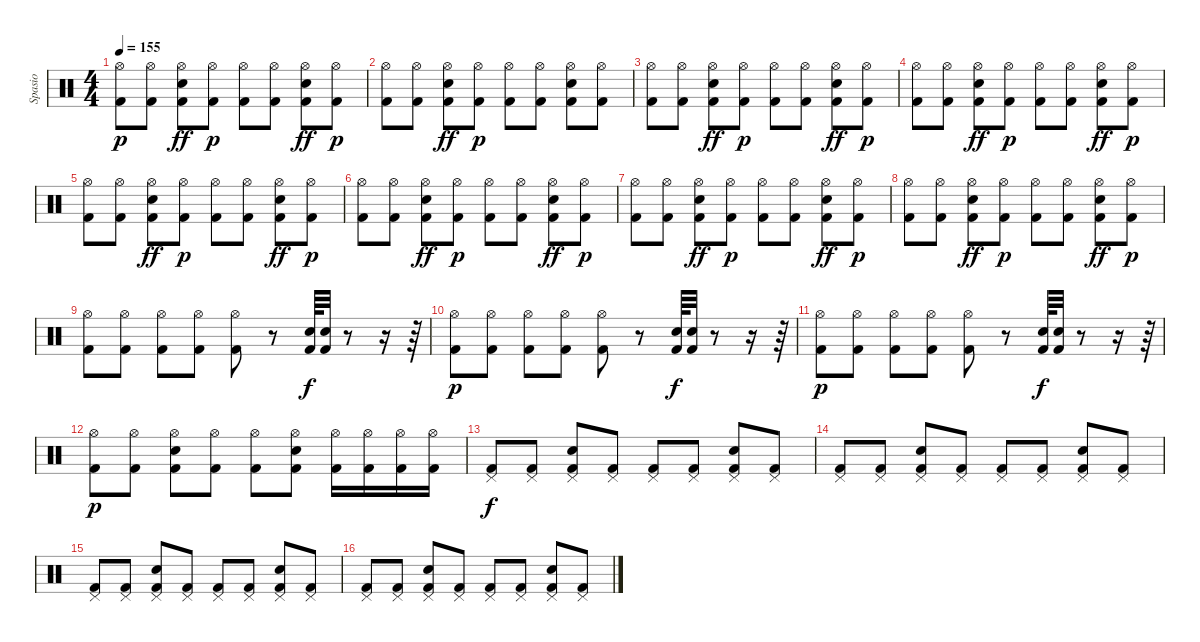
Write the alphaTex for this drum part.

\track ("Spasio" "Spasio") {instrument percussion}
\staff {score}
\articulation defaults
\ts (4 4)
\tempo 155
\clef neutral
\ks c
("Hi-Hat (open)" "Kick (hit) 2").8{dy p} ("Hi-Hat (open)" "Kick (hit) 2").8 ("Hi-Hat (open)" "Electric Snare (hit)" "Kick (hit) 2").8{dy ff} ("Hi-Hat (open)" "Kick (hit) 2").8{dy p} ("Hi-Hat (open)" "Kick (hit) 2").8 ("Hi-Hat (open)" "Kick (hit) 2").8 ("Hi-Hat (open)" "Electric Snare (hit)" "Kick (hit) 2").8{dy ff} ("Hi-Hat (open)" "Kick (hit) 2").8{dy p} |
("Hi-Hat (open)" "Kick (hit) 2").8 ("Hi-Hat (open)" "Kick (hit) 2").8 ("Hi-Hat (open)" "Electric Snare (hit)" "Kick (hit) 2").8{dy ff} ("Hi-Hat (open)" "Kick (hit) 2").8{dy p} ("Hi-Hat (open)" "Kick (hit) 2").8 ("Hi-Hat (open)" "Kick (hit) 2").8 ("Hi-Hat (open)" "Electric Snare (hit)" "Kick (hit) 2").8 ("Hi-Hat (open)" "Kick (hit) 2").8 |
("Hi-Hat (open)" "Kick (hit) 2").8 ("Hi-Hat (open)" "Kick (hit) 2").8 ("Hi-Hat (open)" "Electric Snare (hit)" "Kick (hit) 2").8{dy ff} ("Hi-Hat (open)" "Kick (hit) 2").8{dy p} ("Hi-Hat (open)" "Kick (hit) 2").8 ("Hi-Hat (open)" "Kick (hit) 2").8 ("Hi-Hat (open)" "Electric Snare (hit)" "Kick (hit) 2").8{dy ff} ("Hi-Hat (open)" "Kick (hit) 2").8{dy p} |
("Hi-Hat (open)" "Kick (hit) 2").8 ("Hi-Hat (open)" "Kick (hit) 2").8 ("Hi-Hat (open)" "Electric Snare (hit)" "Kick (hit) 2").8{dy ff} ("Hi-Hat (open)" "Kick (hit) 2").8{dy p} ("Hi-Hat (open)" "Kick (hit) 2").8 ("Hi-Hat (open)" "Kick (hit) 2").8 ("Hi-Hat (open)" "Electric Snare (hit)" "Kick (hit) 2").8{dy ff} ("Hi-Hat (open)" "Kick (hit) 2").8{dy p} |
("Hi-Hat (open)" "Kick (hit) 2").8 ("Hi-Hat (open)" "Kick (hit) 2").8 ("Hi-Hat (open)" "Electric Snare (hit)" "Kick (hit) 2").8{dy ff} ("Hi-Hat (open)" "Kick (hit) 2").8{dy p} ("Hi-Hat (open)" "Kick (hit) 2").8 ("Hi-Hat (open)" "Kick (hit) 2").8 ("Hi-Hat (open)" "Electric Snare (hit)" "Kick (hit) 2").8{dy ff} ("Hi-Hat (open)" "Kick (hit) 2").8{dy p} |
("Hi-Hat (open)" "Kick (hit) 2").8 ("Hi-Hat (open)" "Kick (hit) 2").8 ("Hi-Hat (open)" "Electric Snare (hit)" "Kick (hit) 2").8{dy ff} ("Hi-Hat (open)" "Kick (hit) 2").8{dy p} ("Hi-Hat (open)" "Kick (hit) 2").8 ("Hi-Hat (open)" "Kick (hit) 2").8 ("Hi-Hat (open)" "Electric Snare (hit)" "Kick (hit) 2").8{dy ff} ("Hi-Hat (open)" "Kick (hit) 2").8{dy p} |
("Hi-Hat (open)" "Kick (hit) 2").8 ("Hi-Hat (open)" "Kick (hit) 2").8 ("Hi-Hat (open)" "Electric Snare (hit)" "Kick (hit) 2").8{dy ff} ("Hi-Hat (open)" "Kick (hit) 2").8{dy p} ("Hi-Hat (open)" "Kick (hit) 2").8 ("Hi-Hat (open)" "Kick (hit) 2").8 ("Hi-Hat (open)" "Electric Snare (hit)" "Kick (hit) 2").8{dy ff} ("Hi-Hat (open)" "Kick (hit) 2").8{dy p} |
("Hi-Hat (open)" "Kick (hit) 2").8 ("Hi-Hat (open)" "Kick (hit) 2").8 ("Hi-Hat (open)" "Electric Snare (hit)" "Kick (hit) 2").8{dy ff} ("Hi-Hat (open)" "Kick (hit) 2").8{dy p} ("Hi-Hat (open)" "Kick (hit) 2").8 ("Hi-Hat (open)" "Kick (hit) 2").8 ("Hi-Hat (open)" "Electric Snare (hit)" "Kick (hit) 2").8{dy ff} ("Hi-Hat (open)" "Kick (hit) 2").8{dy p} |
("Hi-Hat (open)" "Kick (hit) 2").8 ("Hi-Hat (open)" "Kick (hit) 2").8 ("Hi-Hat (open)" "Kick (hit) 2").8 ("Hi-Hat (open)" "Kick (hit) 2").8 ("Hi-Hat (open)" "Kick (hit) 2").8 r.8 ("Electric Snare (hit)" "Kick (hit) 2").64{dy f} ("Electric Snare (hit)" "Kick (hit) 2").32 r.8 r.16 r.64 |
("Hi-Hat (open)" "Kick (hit) 2").8{dy p} ("Hi-Hat (open)" "Kick (hit) 2").8 ("Hi-Hat (open)" "Kick (hit) 2").8 ("Hi-Hat (open)" "Kick (hit) 2").8 ("Hi-Hat (open)" "Kick (hit) 2").8 r.8 ("Electric Snare (hit)" "Kick (hit) 2").64{dy f} ("Electric Snare (hit)" "Kick (hit) 2").32 r.8 r.16 r.64 |
("Hi-Hat (open)" "Kick (hit) 2").8{dy p} ("Hi-Hat (open)" "Kick (hit) 2").8 ("Hi-Hat (open)" "Kick (hit) 2").8 ("Hi-Hat (open)" "Kick (hit) 2").8 ("Hi-Hat (open)" "Kick (hit) 2").8 r.8 ("Electric Snare (hit)" "Kick (hit) 2").64{dy f} ("Electric Snare (hit)" "Kick (hit) 2").32 r.8 r.16 r.64 |
("Hi-Hat (open)" "Kick (hit) 2").8{dy p} ("Hi-Hat (open)" "Kick (hit) 2").8 ("Hi-Hat (open)" "Electric Snare (hit)" "Kick (hit) 2").8 ("Hi-Hat (open)" "Kick (hit) 2").8 ("Hi-Hat (open)" "Kick (hit) 2").8 ("Hi-Hat (open)" "Electric Snare (hit)" "Kick (hit) 2").8 ("Hi-Hat (open)" "Kick (hit) 2").16 ("Hi-Hat (open)" "Kick (hit) 2").16 ("Hi-Hat (open)" "Kick (hit) 2").16 ("Hi-Hat (open)" "Kick (hit) 2").16 |
("Pedal Hi-Hat (hit)" "Kick (hit) 2").8{dy f} ("Pedal Hi-Hat (hit)" "Kick (hit) 2").8 ("Pedal Hi-Hat (hit)" "Electric Snare (hit)" "Kick (hit) 2").8 ("Pedal Hi-Hat (hit)" "Kick (hit) 2").8 ("Pedal Hi-Hat (hit)" "Kick (hit) 2").8 ("Pedal Hi-Hat (hit)" "Kick (hit) 2").8 ("Pedal Hi-Hat (hit)" "Electric Snare (hit)" "Kick (hit) 2").8 ("Pedal Hi-Hat (hit)" "Kick (hit) 2").8 |
("Pedal Hi-Hat (hit)" "Kick (hit) 2").8 ("Pedal Hi-Hat (hit)" "Kick (hit) 2").8 ("Pedal Hi-Hat (hit)" "Electric Snare (hit)" "Kick (hit) 2").8 ("Pedal Hi-Hat (hit)" "Kick (hit) 2").8 ("Pedal Hi-Hat (hit)" "Kick (hit) 2").8 ("Pedal Hi-Hat (hit)" "Kick (hit) 2").8 ("Pedal Hi-Hat (hit)" "Electric Snare (hit)" "Kick (hit) 2").8 ("Pedal Hi-Hat (hit)" "Kick (hit) 2").8 |
("Pedal Hi-Hat (hit)" "Kick (hit) 2").8 ("Pedal Hi-Hat (hit)" "Kick (hit) 2").8 ("Pedal Hi-Hat (hit)" "Electric Snare (hit)" "Kick (hit) 2").8 ("Pedal Hi-Hat (hit)" "Kick (hit) 2").8 ("Pedal Hi-Hat (hit)" "Kick (hit) 2").8 ("Pedal Hi-Hat (hit)" "Kick (hit) 2").8 ("Pedal Hi-Hat (hit)" "Electric Snare (hit)" "Kick (hit) 2").8 ("Pedal Hi-Hat (hit)" "Kick (hit) 2").8 |
("Pedal Hi-Hat (hit)" "Kick (hit) 2").8 ("Pedal Hi-Hat (hit)" "Kick (hit) 2").8 ("Pedal Hi-Hat (hit)" "Electric Snare (hit)" "Kick (hit) 2").8 ("Pedal Hi-Hat (hit)" "Kick (hit) 2").8 ("Pedal Hi-Hat (hit)" "Kick (hit) 2").8 ("Pedal Hi-Hat (hit)" "Kick (hit) 2").8 ("Pedal Hi-Hat (hit)" "Electric Snare (hit)" "Kick (hit) 2").8 ("Pedal Hi-Hat (hit)" "Kick (hit) 2").8
